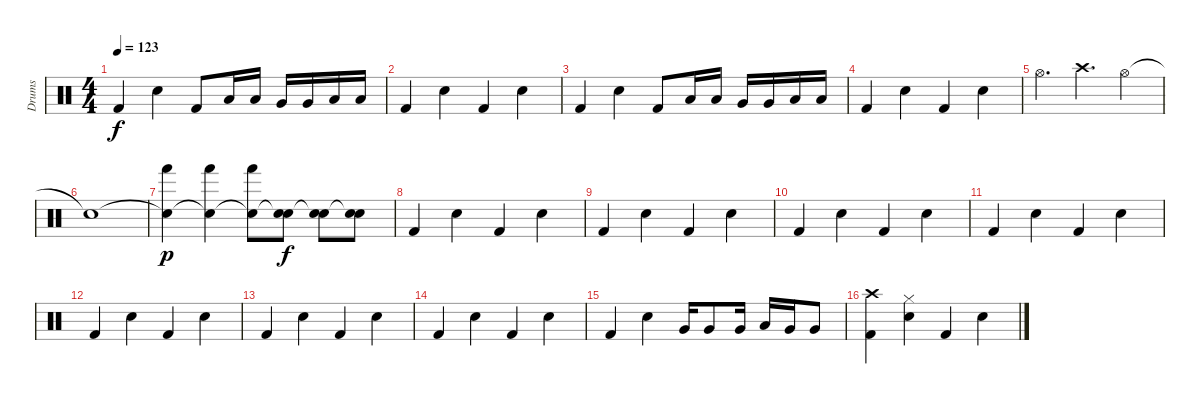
\track ("Drums" "Drums") {instrument percussion}
\staff {score}
\articulation defaults
\ts (4 4)
\tempo 123
\clef neutral
\ks c "Kick (hit) 2".4{dy f} "Electric Snare (hit)".4 "Kick (hit) 2".8 "Low Tom (hit)".16 "Low Tom (hit)".16 "Very Low Tom (hit)".16 "Very Low Tom (hit)".16 "Low Floor Tom (hit)".16 "Low Floor Tom (hit)".16
|
"Kick (hit) 2".4 "Electric Snare (hit)".4 "Kick (hit) 2".4 "Electric Snare (hit)".4 |
"Kick (hit) 2".4 "Electric Snare (hit)".4 "Kick (hit) 2".8 "Low Tom (hit)".16 "Low Tom (hit)".16 "Very Low Tom (hit)".16 "Very Low Tom (hit)".16 "Low Floor Tom (hit)".16 "Low Floor Tom (hit)".16 |
"Kick (hit) 2".4 "Electric Snare (hit)".4 "Kick (hit) 2".4 "Electric Snare (hit)".4 |
"Hi-Hat (open)".4{d} "Crash high (hit)".4{d} "Hi-Hat (open)".4 |
"Snare (hit)"{t}.1 |
("Snare (hit)"{t} "Hand (hit)").4{dy p} ("Snare (hit)"{t} "Hand (hit)").4 ("Snare (hit)"{t} "Hand (hit)").8 ("Snare (hit)"{t} "Electric Snare (hit)").8{dy f} ("Snare (hit)"{t} "Electric Snare (hit)").8 ("Snare (hit)"{t} "Electric Snare (hit)").8 |
"Kick (hit) 2".4 "Electric Snare (hit)".4 "Kick (hit) 2".4 "Electric Snare (hit)".4 |
"Kick (hit) 2".4 "Electric Snare (hit)".4 "Kick (hit) 2".4 "Electric Snare (hit)".4 |
"Kick (hit) 2".4 "Electric Snare (hit)".4 "Kick (hit) 2".4 "Electric Snare (hit)".4 |
"Kick (hit) 2".4 "Electric Snare (hit)".4 "Kick (hit) 2".4 "Electric Snare (hit)".4 |
"Kick (hit) 2".4 "Electric Snare (hit)".4 "Kick (hit) 2".4 "Electric Snare (hit)".4 |
"Kick (hit) 2".4 "Electric Snare (hit)".4 "Kick (hit) 2".4 "Electric Snare (hit)".4 |
"Kick (hit) 2".4 "Electric Snare (hit)".4 "Kick (hit) 2".4 "Electric Snare (hit)".4 |
"Kick (hit) 2".4 "Electric Snare (hit)".4 "Very Low Tom (hit)".16 "Very Low Tom (hit)".8 "Very Low Tom (hit)".16 "Low Tom (hit)".16 "Very Low Tom (hit)".16 "Very Low Tom (hit)".8 |
("Crash high (hit)" "Kick (hit) 2").4 ("Hi-Hat (closed)" "Electric Snare (hit)").4 "Kick (hit) 2".4 "Electric Snare (hit)".4
